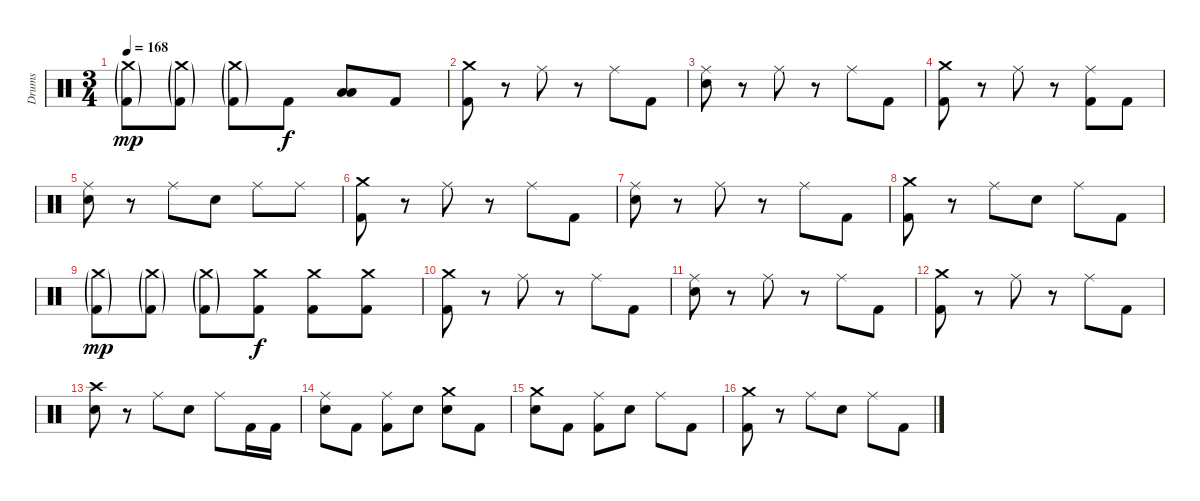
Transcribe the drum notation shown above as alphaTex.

\track ("Drums" "Drums") {instrument percussion}
\staff {score}
\articulation defaults
\ts (3 4)
\tempo 168
\clef neutral
\ks c
("Crash medium (hit)"{g} "Kick (hit) 2"{g}).8{dy mp} ("Crash medium (hit)"{g} "Kick (hit) 2"{g}).8 ("Crash medium (hit)"{g} "Kick (hit) 2"{g}).8 "Kick (hit) 2".8{dy f} ("Low Tom (hit)" "Low Floor Tom (hit)").8 "Kick (hit) 2".8 |
("Crash medium (hit)" "Kick (hit) 2").8 r.8 "Ride (middle)".8 r.8 "Ride (middle)".8 "Kick (hit) 2".8 |
("Ride (middle)" "Electric Snare (hit)").8 r.8 "Ride (middle)".8 r.8 "Ride (middle)".8 "Kick (hit) 2".8 |
("Crash medium (hit)" "Kick (hit) 2").8 r.8 "Ride (middle)".8 r.8 ("Ride (middle)" "Kick (hit) 2").8 "Kick (hit) 2".8 |
("Ride (middle)" "Electric Snare (hit)").8 r.8 "Ride (middle)".8 "Electric Snare (hit)".8 "Ride (middle)".8 "Ride (middle)".8 |
("Crash medium (hit)" "Kick (hit) 2").8 r.8 "Ride (middle)".8 r.8 "Ride (middle)".8 "Kick (hit) 2".8 |
("Ride (middle)" "Electric Snare (hit)").8 r.8 "Ride (middle)".8 r.8 "Ride (middle)".8 "Kick (hit) 2".8 |
("Crash medium (hit)" "Kick (hit) 2").8 r.8 "Ride (middle)".8 "Electric Snare (hit)".8 "Ride (middle)".8 "Kick (hit) 2".8 |
("Crash medium (hit)"{g} "Kick (hit) 2"{g}).8{dy mp} ("Crash medium (hit)"{g} "Kick (hit) 2"{g}).8 ("Crash medium (hit)"{g} "Kick (hit) 2"{g}).8 ("Crash medium (hit)" "Kick (hit) 2").8{dy f} ("Crash medium (hit)" "Kick (hit) 2").8 ("Crash medium (hit)" "Kick (hit) 2").8 |
("Crash medium (hit)" "Kick (hit) 2").8 r.8 "Ride (middle)".8 r.8 "Ride (middle)".8 "Kick (hit) 2".8 |
("Ride (middle)" "Electric Snare (hit)").8 r.8 "Ride (middle)".8 r.8 "Ride (middle)".8 "Kick (hit) 2".8 |
("Crash medium (hit)" "Kick (hit) 2").8 r.8 "Ride (middle)".8 r.8 "Ride (middle)".8 "Kick (hit) 2".8 |
("Crash high (hit)" "Electric Snare (hit)").8 r.8 "Ride (middle)".8 "Electric Snare (hit)".8 "Ride (middle)".8 "Kick (hit) 2".16 "Kick (hit) 2".16 |
("Ride (middle)" "Electric Snare (hit)").8 "Kick (hit) 2".8 ("Ride (middle)" "Kick (hit) 2").8 "Electric Snare (hit)".8 ("Crash medium (hit)" "Electric Snare (hit)").8 "Kick (hit) 2".8 |
("Crash medium (hit)" "Electric Snare (hit)").8 "Kick (hit) 2".8 ("Ride (middle)" "Kick (hit) 2").8 "Electric Snare (hit)".8 "Ride (middle)".8 "Kick (hit) 2".8 |
("Crash medium (hit)" "Kick (hit) 2").8 r.8 "Ride (middle)".8 "Electric Snare (hit)".8 "Ride (middle)".8 "Kick (hit) 2".8
